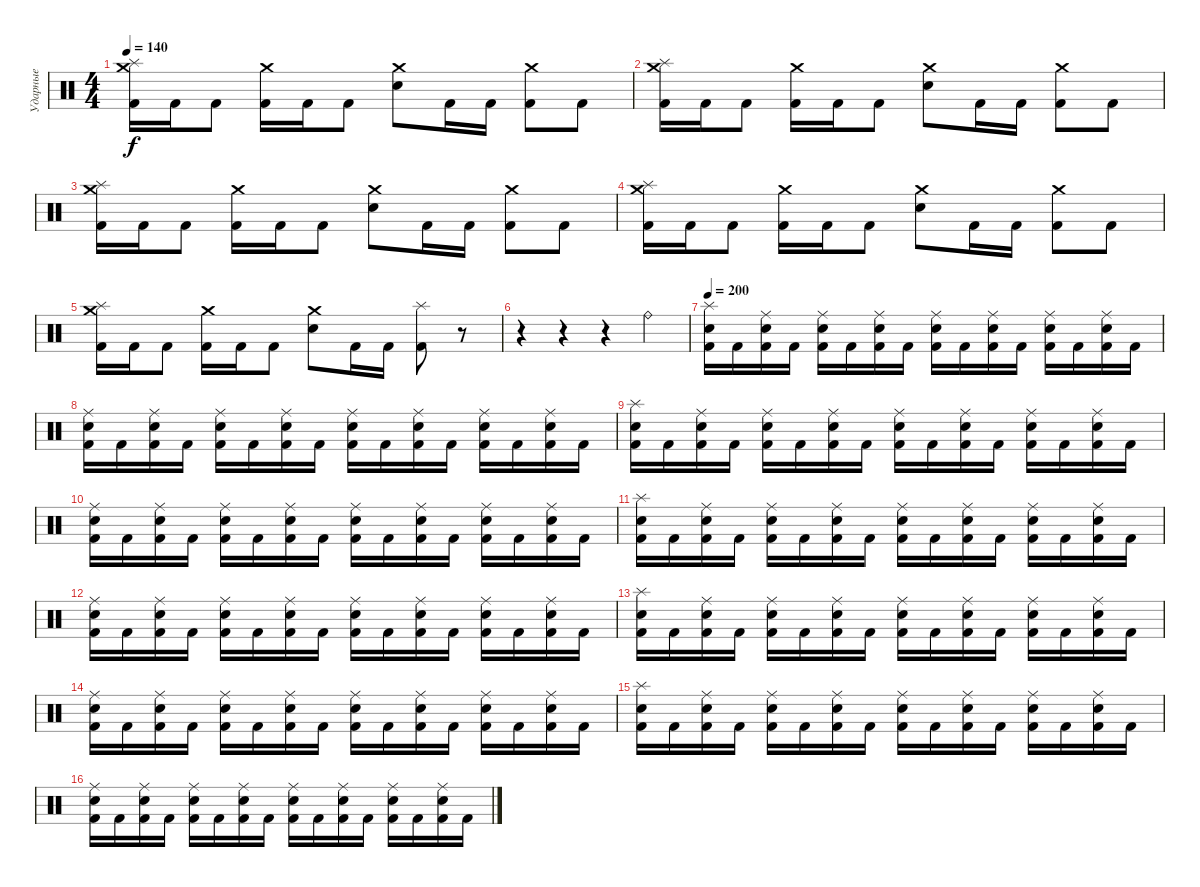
\track ("Ударные" "Ударные") {instrument percussion}
\staff {score}
\articulation defaults
\ts (4 4)
\tempo 140
\clef neutral
\ks c
("Crash medium (hit)" "Splash (hit)" "Kick (hit) 2").16{dy f} "Kick (hit) 2".16 "Kick (hit) 2".8 ("Crash medium (hit)" "Kick (hit) 2").16 "Kick (hit) 2".16 "Kick (hit) 2".8 ("Crash medium (hit)" "Electric Snare (hit)").8 "Kick (hit) 2".16 "Kick (hit) 2".16 ("Crash medium (hit)" "Kick (hit) 2").8 "Kick (hit) 2".8 |
("Crash medium (hit)" "Splash (hit)" "Kick (hit) 2").16 "Kick (hit) 2".16 "Kick (hit) 2".8 ("Crash medium (hit)" "Kick (hit) 2").16 "Kick (hit) 2".16 "Kick (hit) 2".8 ("Crash medium (hit)" "Electric Snare (hit)").8 "Kick (hit) 2".16 "Kick (hit) 2".16 ("Crash medium (hit)" "Kick (hit) 2").8 "Kick (hit) 2".8 |
("Crash medium (hit)" "Splash (hit)" "Kick (hit) 2").16 "Kick (hit) 2".16 "Kick (hit) 2".8 ("Crash medium (hit)" "Kick (hit) 2").16 "Kick (hit) 2".16 "Kick (hit) 2".8 ("Crash medium (hit)" "Electric Snare (hit)").8 "Kick (hit) 2".16 "Kick (hit) 2".16 ("Crash medium (hit)" "Kick (hit) 2").8 "Kick (hit) 2".8 |
("Crash medium (hit)" "Splash (hit)" "Kick (hit) 2").16 "Kick (hit) 2".16 "Kick (hit) 2".8 ("Crash medium (hit)" "Kick (hit) 2").16 "Kick (hit) 2".16 "Kick (hit) 2".8 ("Crash medium (hit)" "Electric Snare (hit)").8 "Kick (hit) 2".16 "Kick (hit) 2".16 ("Crash medium (hit)" "Kick (hit) 2").8 "Kick (hit) 2".8 |
("Crash medium (hit)" "Splash (hit)" "Kick (hit) 2").16 "Kick (hit) 2".16 "Kick (hit) 2".8 ("Crash medium (hit)" "Kick (hit) 2").16 "Kick (hit) 2".16 "Kick (hit) 2".8 ("Crash medium (hit)" "Electric Snare (hit)").8 "Kick (hit) 2".16 "Kick (hit) 2".16 ("Splash (hit)" "Kick (hit) 2").8 r.8 |
r.4 r.4 r.4 "Ride (bell)".4 |
\tempo 200
("Splash (hit)" "Electric Snare (hit)" "Kick (hit) 2").16 "Kick (hit) 2".16 ("Ride (middle)" "Electric Snare (hit)" "Kick (hit) 2").16 "Kick (hit) 2".16 ("Ride (middle)" "Electric Snare (hit)" "Kick (hit) 2").16 "Kick (hit) 2".16 ("Ride (middle)" "Electric Snare (hit)" "Kick (hit) 2").16 "Kick (hit) 2".16 ("Ride (middle)" "Electric Snare (hit)" "Kick (hit) 2").16 "Kick (hit) 2".16 ("Ride (middle)" "Electric Snare (hit)" "Kick (hit) 2").16 "Kick (hit) 2".16 ("Ride (middle)" "Electric Snare (hit)" "Kick (hit) 2").16 "Kick (hit) 2".16 ("Ride (middle)" "Electric Snare (hit)" "Kick (hit) 2").16 "Kick (hit) 2".16 |
("Ride (middle)" "Electric Snare (hit)" "Kick (hit) 2").16 "Kick (hit) 2".16 ("Ride (middle)" "Electric Snare (hit)" "Kick (hit) 2").16 "Kick (hit) 2".16 ("Ride (middle)" "Electric Snare (hit)" "Kick (hit) 2").16 "Kick (hit) 2".16 ("Ride (middle)" "Electric Snare (hit)" "Kick (hit) 2").16 "Kick (hit) 2".16 ("Ride (middle)" "Electric Snare (hit)" "Kick (hit) 2").16 "Kick (hit) 2".16 ("Ride (middle)" "Electric Snare (hit)" "Kick (hit) 2").16 "Kick (hit) 2".16 ("Ride (middle)" "Electric Snare (hit)" "Kick (hit) 2").16 "Kick (hit) 2".16 ("Ride (middle)" "Electric Snare (hit)" "Kick (hit) 2").16 "Kick (hit) 2".16 |
("Splash (hit)" "Electric Snare (hit)" "Kick (hit) 2").16 "Kick (hit) 2".16 ("Ride (middle)" "Electric Snare (hit)" "Kick (hit) 2").16 "Kick (hit) 2".16 ("Ride (middle)" "Electric Snare (hit)" "Kick (hit) 2").16 "Kick (hit) 2".16 ("Ride (middle)" "Electric Snare (hit)" "Kick (hit) 2").16 "Kick (hit) 2".16 ("Ride (middle)" "Electric Snare (hit)" "Kick (hit) 2").16 "Kick (hit) 2".16 ("Ride (middle)" "Electric Snare (hit)" "Kick (hit) 2").16 "Kick (hit) 2".16 ("Ride (middle)" "Electric Snare (hit)" "Kick (hit) 2").16 "Kick (hit) 2".16 ("Ride (middle)" "Electric Snare (hit)" "Kick (hit) 2").16 "Kick (hit) 2".16 |
("Ride (middle)" "Electric Snare (hit)" "Kick (hit) 2").16 "Kick (hit) 2".16 ("Ride (middle)" "Electric Snare (hit)" "Kick (hit) 2").16 "Kick (hit) 2".16 ("Ride (middle)" "Electric Snare (hit)" "Kick (hit) 2").16 "Kick (hit) 2".16 ("Ride (middle)" "Electric Snare (hit)" "Kick (hit) 2").16 "Kick (hit) 2".16 ("Ride (middle)" "Electric Snare (hit)" "Kick (hit) 2").16 "Kick (hit) 2".16 ("Ride (middle)" "Electric Snare (hit)" "Kick (hit) 2").16 "Kick (hit) 2".16 ("Ride (middle)" "Electric Snare (hit)" "Kick (hit) 2").16 "Kick (hit) 2".16 ("Ride (middle)" "Electric Snare (hit)" "Kick (hit) 2").16 "Kick (hit) 2".16 |
("Splash (hit)" "Electric Snare (hit)" "Kick (hit) 2").16 "Kick (hit) 2".16 ("Ride (middle)" "Electric Snare (hit)" "Kick (hit) 2").16 "Kick (hit) 2".16 ("Ride (middle)" "Electric Snare (hit)" "Kick (hit) 2").16 "Kick (hit) 2".16 ("Ride (middle)" "Electric Snare (hit)" "Kick (hit) 2").16 "Kick (hit) 2".16 ("Ride (middle)" "Electric Snare (hit)" "Kick (hit) 2").16 "Kick (hit) 2".16 ("Ride (middle)" "Electric Snare (hit)" "Kick (hit) 2").16 "Kick (hit) 2".16 ("Ride (middle)" "Electric Snare (hit)" "Kick (hit) 2").16 "Kick (hit) 2".16 ("Ride (middle)" "Electric Snare (hit)" "Kick (hit) 2").16 "Kick (hit) 2".16 |
("Ride (middle)" "Electric Snare (hit)" "Kick (hit) 2").16 "Kick (hit) 2".16 ("Ride (middle)" "Electric Snare (hit)" "Kick (hit) 2").16 "Kick (hit) 2".16 ("Ride (middle)" "Electric Snare (hit)" "Kick (hit) 2").16 "Kick (hit) 2".16 ("Ride (middle)" "Electric Snare (hit)" "Kick (hit) 2").16 "Kick (hit) 2".16 ("Ride (middle)" "Electric Snare (hit)" "Kick (hit) 2").16 "Kick (hit) 2".16 ("Ride (middle)" "Electric Snare (hit)" "Kick (hit) 2").16 "Kick (hit) 2".16 ("Ride (middle)" "Electric Snare (hit)" "Kick (hit) 2").16 "Kick (hit) 2".16 ("Ride (middle)" "Electric Snare (hit)" "Kick (hit) 2").16 "Kick (hit) 2".16 |
("Splash (hit)" "Electric Snare (hit)" "Kick (hit) 2").16 "Kick (hit) 2".16 ("Ride (middle)" "Electric Snare (hit)" "Kick (hit) 2").16 "Kick (hit) 2".16 ("Ride (middle)" "Electric Snare (hit)" "Kick (hit) 2").16 "Kick (hit) 2".16 ("Ride (middle)" "Electric Snare (hit)" "Kick (hit) 2").16 "Kick (hit) 2".16 ("Ride (middle)" "Electric Snare (hit)" "Kick (hit) 2").16 "Kick (hit) 2".16 ("Ride (middle)" "Electric Snare (hit)" "Kick (hit) 2").16 "Kick (hit) 2".16 ("Ride (middle)" "Electric Snare (hit)" "Kick (hit) 2").16 "Kick (hit) 2".16 ("Ride (middle)" "Electric Snare (hit)" "Kick (hit) 2").16 "Kick (hit) 2".16 |
("Ride (middle)" "Electric Snare (hit)" "Kick (hit) 2").16 "Kick (hit) 2".16 ("Ride (middle)" "Electric Snare (hit)" "Kick (hit) 2").16 "Kick (hit) 2".16 ("Ride (middle)" "Electric Snare (hit)" "Kick (hit) 2").16 "Kick (hit) 2".16 ("Ride (middle)" "Electric Snare (hit)" "Kick (hit) 2").16 "Kick (hit) 2".16 ("Ride (middle)" "Electric Snare (hit)" "Kick (hit) 2").16 "Kick (hit) 2".16 ("Ride (middle)" "Electric Snare (hit)" "Kick (hit) 2").16 "Kick (hit) 2".16 ("Ride (middle)" "Electric Snare (hit)" "Kick (hit) 2").16 "Kick (hit) 2".16 ("Ride (middle)" "Electric Snare (hit)" "Kick (hit) 2").16 "Kick (hit) 2".16 |
("Splash (hit)" "Electric Snare (hit)" "Kick (hit) 2").16 "Kick (hit) 2".16 ("Ride (middle)" "Electric Snare (hit)" "Kick (hit) 2").16 "Kick (hit) 2".16 ("Ride (middle)" "Electric Snare (hit)" "Kick (hit) 2").16 "Kick (hit) 2".16 ("Ride (middle)" "Electric Snare (hit)" "Kick (hit) 2").16 "Kick (hit) 2".16 ("Ride (middle)" "Electric Snare (hit)" "Kick (hit) 2").16 "Kick (hit) 2".16 ("Ride (middle)" "Electric Snare (hit)" "Kick (hit) 2").16 "Kick (hit) 2".16 ("Ride (middle)" "Electric Snare (hit)" "Kick (hit) 2").16 "Kick (hit) 2".16 ("Ride (middle)" "Electric Snare (hit)" "Kick (hit) 2").16 "Kick (hit) 2".16 |
("Ride (middle)" "Electric Snare (hit)" "Kick (hit) 2").16 "Kick (hit) 2".16 ("Ride (middle)" "Electric Snare (hit)" "Kick (hit) 2").16 "Kick (hit) 2".16 ("Ride (middle)" "Electric Snare (hit)" "Kick (hit) 2").16 "Kick (hit) 2".16 ("Ride (middle)" "Electric Snare (hit)" "Kick (hit) 2").16 "Kick (hit) 2".16 ("Ride (middle)" "Electric Snare (hit)" "Kick (hit) 2").16 "Kick (hit) 2".16 ("Ride (middle)" "Electric Snare (hit)" "Kick (hit) 2").16 "Kick (hit) 2".16 ("Ride (middle)" "Electric Snare (hit)" "Kick (hit) 2").16 "Kick (hit) 2".16 ("Ride (middle)" "Electric Snare (hit)" "Kick (hit) 2").16 "Kick (hit) 2".16
